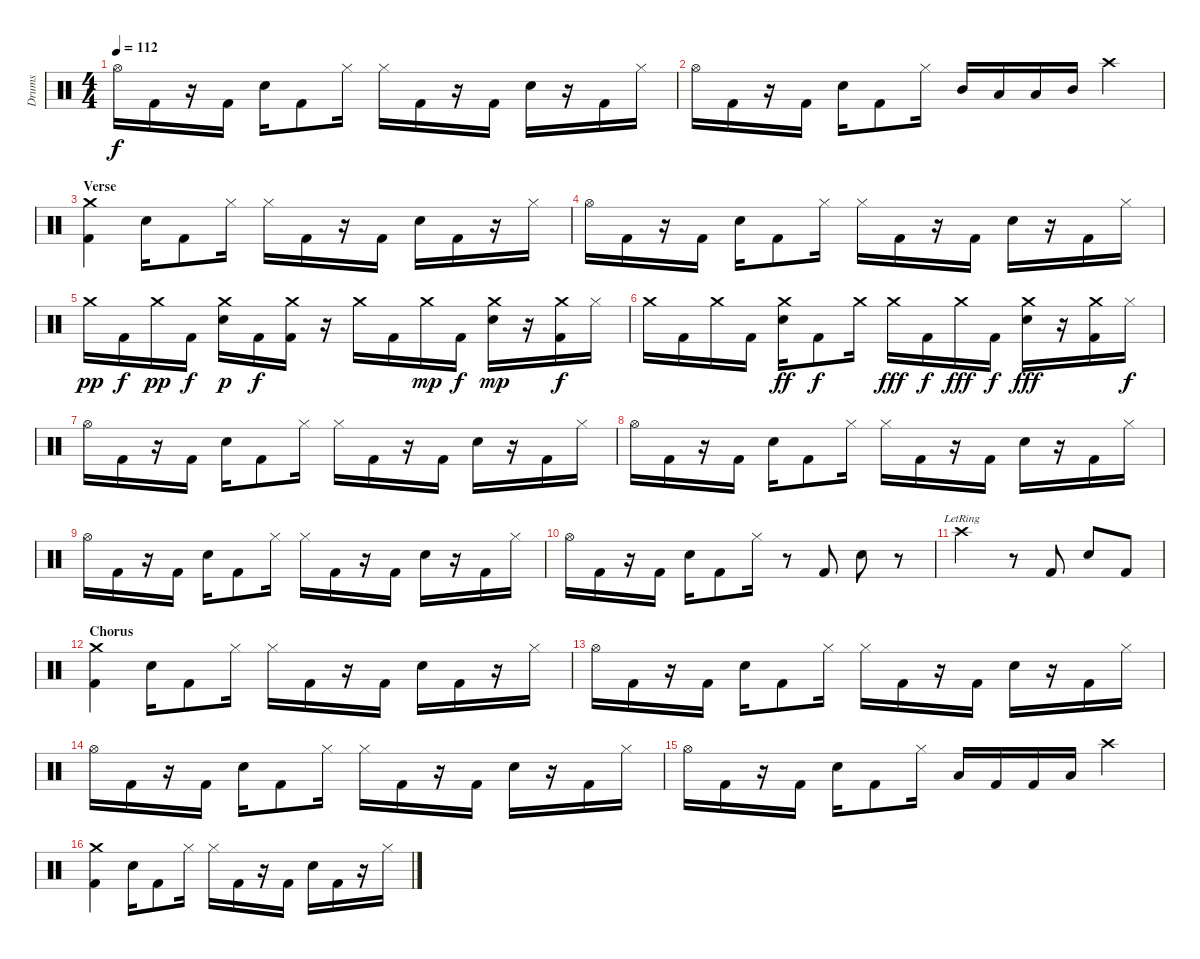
\track ("Drums" "Drums") {instrument percussion}
\staff {score}
\articulation defaults
\ts (4 4)
\tempo 112
\clef neutral
\ks c "Hi-Hat (open)".16{dy f} "Kick (hit) 2".16
r.16 "Kick (hit) 2".16 "Electric Snare (hit)".16 "Kick (hit) 2".8 "Hi-Hat (closed)".16 "Hi-Hat (closed)".16 "Kick (hit) 2".16 r.16 "Kick (hit) 2".16 "Electric Snare (hit)".16 r.16 "Kick (hit) 2".16 "Hi-Hat (closed)".16 |
"Hi-Hat (open)".16 "Kick (hit) 2".16 r.16 "Kick (hit) 2".16 "Electric Snare (hit)".16 "Kick (hit) 2".8 "Hi-Hat (closed)".16 "Mid Tom (hit)".16 "Low Floor Tom (hit)".16 "Low Floor Tom (hit)".16 "Mid Tom (hit)".16 "Crash high (hit)".4 |
\section ("" "Verse")
("Crash medium (hit)" "Kick (hit) 2").4 "Electric Snare (hit)".16 "Kick (hit) 2".8 "Hi-Hat (closed)".16 "Hi-Hat (closed)".16 "Kick (hit) 2".16 r.16 "Kick (hit) 2".16 "Electric Snare (hit)".16 "Kick (hit) 2".16 r.16 "Hi-Hat (closed)".16 |
"Hi-Hat (open)".16 "Kick (hit) 2".16 r.16 "Kick (hit) 2".16 "Electric Snare (hit)".16 "Kick (hit) 2".8 "Hi-Hat (closed)".16 "Hi-Hat (closed)".16 "Kick (hit) 2".16 r.16 "Kick (hit) 2".16 "Electric Snare (hit)".16 r.16 "Kick (hit) 2".16 "Hi-Hat (closed)".16 |
"Crash medium (hit)".16{dy pp} "Kick (hit) 2".16{dy f} "Crash medium (hit)".16{dy pp} "Kick (hit) 2".16{dy f} ("Crash medium (hit)" "Electric Snare (hit)").16{dy p} "Kick (hit) 2".16{dy f} ("Crash medium (hit)" "Kick (hit) 2").16 r.16 "Crash medium (hit)".16 "Kick (hit) 2".16 "Crash medium (hit)".16{dy mp} "Kick (hit) 2".16{dy f} ("Crash medium (hit)" "Electric Snare (hit)").16{dy mp} r.16 ("Crash medium (hit)" "Kick (hit) 2").16{dy f} "Hi-Hat (closed)".16 |
"Crash medium (hit)".16 "Kick (hit) 2".16 "Crash medium (hit)".16 "Kick (hit) 2".16 ("Crash medium (hit)" "Electric Snare (hit)").16{dy ff} "Kick (hit) 2".8{dy f} "Crash medium (hit)".16 "Crash medium (hit)".16{dy fff} "Kick (hit) 2".16{dy f} "Crash medium (hit)".16{dy fff} "Kick (hit) 2".16{dy f} ("Crash medium (hit)" "Electric Snare (hit)").16{dy fff} r.16 ("Crash medium (hit)" "Kick (hit) 2").16 "Hi-Hat (closed)".16{dy f} |
"Hi-Hat (open)".16 "Kick (hit) 2".16 r.16 "Kick (hit) 2".16 "Electric Snare (hit)".16 "Kick (hit) 2".8 "Hi-Hat (closed)".16 "Hi-Hat (closed)".16 "Kick (hit) 2".16 r.16 "Kick (hit) 2".16 "Electric Snare (hit)".16 r.16 "Kick (hit) 2".16 "Hi-Hat (closed)".16 |
"Hi-Hat (open)".16 "Kick (hit) 2".16 r.16 "Kick (hit) 2".16 "Electric Snare (hit)".16 "Kick (hit) 2".8 "Hi-Hat (closed)".16 "Hi-Hat (closed)".16 "Kick (hit) 2".16 r.16 "Kick (hit) 2".16 "Electric Snare (hit)".16 r.16 "Kick (hit) 2".16 "Hi-Hat (closed)".16 |
"Hi-Hat (open)".16 "Kick (hit) 2".16 r.16 "Kick (hit) 2".16 "Electric Snare (hit)".16 "Kick (hit) 2".8 "Hi-Hat (closed)".16 "Hi-Hat (closed)".16 "Kick (hit) 2".16 r.16 "Kick (hit) 2".16 "Electric Snare (hit)".16 r.16 "Kick (hit) 2".16 "Hi-Hat (closed)".16 |
"Hi-Hat (open)".16 "Kick (hit) 2".16 r.16 "Kick (hit) 2".16 "Electric Snare (hit)".16 "Kick (hit) 2".8 "Hi-Hat (closed)".16 r.8 "Kick (hit) 2".8 "Electric Snare (hit)".8 r.8 |
"Crash high (hit)"{lr}.2 r.8 "Kick (hit) 2".8 "Electric Snare (hit)".8 "Kick (hit) 2".8 |
\section ("" "Chorus")
("Crash medium (hit)" "Kick (hit) 2").4 "Electric Snare (hit)".16 "Kick (hit) 2".8 "Hi-Hat (closed)".16 "Hi-Hat (closed)".16 "Kick (hit) 2".16 r.16 "Kick (hit) 2".16 "Electric Snare (hit)".16 "Kick (hit) 2".16 r.16 "Hi-Hat (closed)".16 |
"Hi-Hat (open)".16 "Kick (hit) 2".16 r.16 "Kick (hit) 2".16 "Electric Snare (hit)".16 "Kick (hit) 2".8 "Hi-Hat (closed)".16 "Hi-Hat (closed)".16 "Kick (hit) 2".16 r.16 "Kick (hit) 2".16 "Electric Snare (hit)".16 r.16 "Kick (hit) 2".16 "Hi-Hat (closed)".16 |
"Hi-Hat (open)".16 "Kick (hit) 2".16 r.16 "Kick (hit) 2".16 "Electric Snare (hit)".16 "Kick (hit) 2".8 "Hi-Hat (closed)".16 "Hi-Hat (closed)".16 "Kick (hit) 2".16 r.16 "Kick (hit) 2".16 "Electric Snare (hit)".16 r.16 "Kick (hit) 2".16 "Hi-Hat (closed)".16 |
"Hi-Hat (open)".16 "Kick (hit) 2".16 r.16 "Kick (hit) 2".16 "Electric Snare (hit)".16 "Kick (hit) 2".8 "Hi-Hat (closed)".16 "Low Floor Tom (hit)".16 "Kick (hit) 2".16 "Kick (hit) 2".16 "Low Floor Tom (hit)".16 "Crash high (hit)".4 |
("Crash medium (hit)" "Kick (hit) 2").4 "Electric Snare (hit)".16 "Kick (hit) 2".8 "Hi-Hat (closed)".16 "Hi-Hat (closed)".16 "Kick (hit) 2".16 r.16 "Kick (hit) 2".16 "Electric Snare (hit)".16 "Kick (hit) 2".16 r.16 "Hi-Hat (closed)".16
